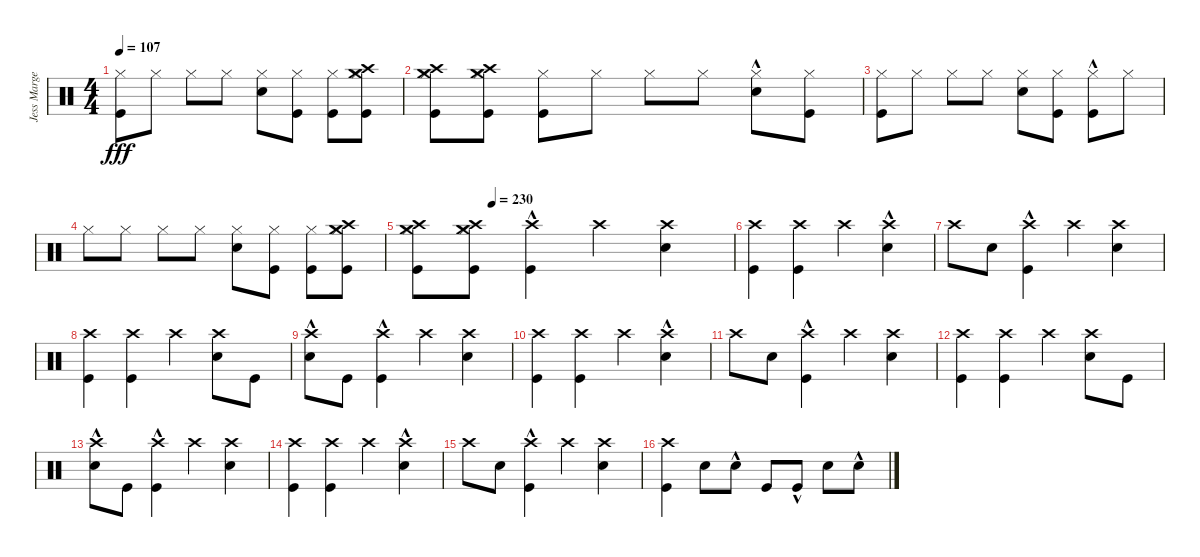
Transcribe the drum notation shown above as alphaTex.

\track ("Jess Margera (drums)" "Jess Marge") {instrument percussion}
\staff {score}
\articulation defaults
\ts (4 4)
\tempo 107
\clef neutral
\ks c
("Kick (hit)" "Hi-Hat (closed)").8{dy fff} "Hi-Hat (closed)".8 "Hi-Hat (closed)".8 "Hi-Hat (closed)".8 ("Snare (hit) 2" "Hi-Hat (closed)").8 ("Kick (hit)" "Hi-Hat (closed)").8 ("Kick (hit)" "Hi-Hat (closed)").8 ("Kick (hit)" "Hi-Hat (closed)" "Crash medium (hit)" "Crash high (hit)").8 |
("Kick (hit)" "Hi-Hat (closed)" "Crash medium (hit)" "Crash high (hit)").8 ("Kick (hit)" "Hi-Hat (closed)" "Crash medium (hit)" "Crash high (hit)").8 ("Kick (hit)" "Hi-Hat (closed)").8 "Hi-Hat (closed)".8 "Hi-Hat (closed)".8 "Hi-Hat (closed)".8 ("Snare (hit) 2"{hac} "Hi-Hat (closed)").8 ("Kick (hit)" "Hi-Hat (closed)").8 |
("Kick (hit)" "Hi-Hat (closed)").8 "Hi-Hat (closed)".8 "Hi-Hat (closed)".8 "Hi-Hat (closed)".8 ("Snare (hit) 2" "Hi-Hat (closed)").8 ("Kick (hit)" "Hi-Hat (closed)").8 ("Kick (hit)"{hac} "Hi-Hat (closed)").8 "Hi-Hat (closed)".8 |
"Hi-Hat (closed)".8 "Hi-Hat (closed)".8 "Hi-Hat (closed)".8 "Hi-Hat (closed)".8 ("Snare (hit) 2" "Hi-Hat (closed)").8 ("Kick (hit)" "Hi-Hat (closed)").8 ("Kick (hit)" "Hi-Hat (closed)").8 ("Kick (hit)" "Hi-Hat (closed)" "Crash medium (hit)" "Crash high (hit)").8 |
\tempo (230 0.25)
("Kick (hit)" "Hi-Hat (closed)" "Crash medium (hit)" "Crash high (hit)").8 ("Kick (hit)" "Hi-Hat (closed)" "Crash medium (hit)" "Crash high (hit)").8 ("Kick (hit)"{hac} "Crash high (hit)").4 "Crash high (hit)".4 ("Snare (hit) 2" "Crash high (hit)").4 |
("Kick (hit)" "Crash high (hit)").4 ("Kick (hit)" "Crash high (hit)").4 "Crash high (hit)".4 ("Snare (hit) 2"{hac} "Crash high (hit)").4 |
"Crash high (hit)".8 "Snare (hit) 2".8 ("Kick (hit)"{hac} "Crash high (hit)").4 "Crash high (hit)".4 ("Snare (hit) 2" "Crash high (hit)").4 |
("Kick (hit)" "Crash high (hit)").4 ("Kick (hit)" "Crash high (hit)").4 "Crash high (hit)".4 ("Snare (hit) 2" "Crash high (hit)").8 "Kick (hit)".8 |
("Snare (hit) 2"{hac} "Crash high (hit)").8 "Kick (hit)".8 ("Kick (hit)"{hac} "Crash high (hit)").4 "Crash high (hit)".4 ("Snare (hit) 2" "Crash high (hit)").4 |
("Kick (hit)" "Crash high (hit)").4 ("Kick (hit)" "Crash high (hit)").4 "Crash high (hit)".4 ("Snare (hit) 2"{hac} "Crash high (hit)").4 |
"Crash high (hit)".8 "Snare (hit) 2".8 ("Kick (hit)"{hac} "Crash high (hit)").4 "Crash high (hit)".4 ("Snare (hit) 2" "Crash high (hit)").4 |
("Kick (hit)" "Crash high (hit)").4 ("Kick (hit)" "Crash high (hit)").4 "Crash high (hit)".4 ("Snare (hit) 2" "Crash high (hit)").8 "Kick (hit)".8 |
("Snare (hit) 2"{hac} "Crash high (hit)").8 "Kick (hit)".8 ("Kick (hit)"{hac} "Crash high (hit)").4 "Crash high (hit)".4 ("Snare (hit) 2" "Crash high (hit)").4 |
("Kick (hit)" "Crash high (hit)").4 ("Kick (hit)" "Crash high (hit)").4 "Crash high (hit)".4 ("Snare (hit) 2"{hac} "Crash high (hit)").4 |
"Crash high (hit)".8 "Snare (hit) 2".8 ("Kick (hit)"{hac} "Crash high (hit)").4 "Crash high (hit)".4 ("Snare (hit) 2" "Crash high (hit)").4 |
("Kick (hit)" "Crash high (hit)").4 "Snare (hit) 2".8 "Snare (hit) 2"{hac}.8 "Kick (hit)".8 "Kick (hit)"{hac}.8 "Snare (hit) 2".8 "Snare (hit) 2"{hac}.8
